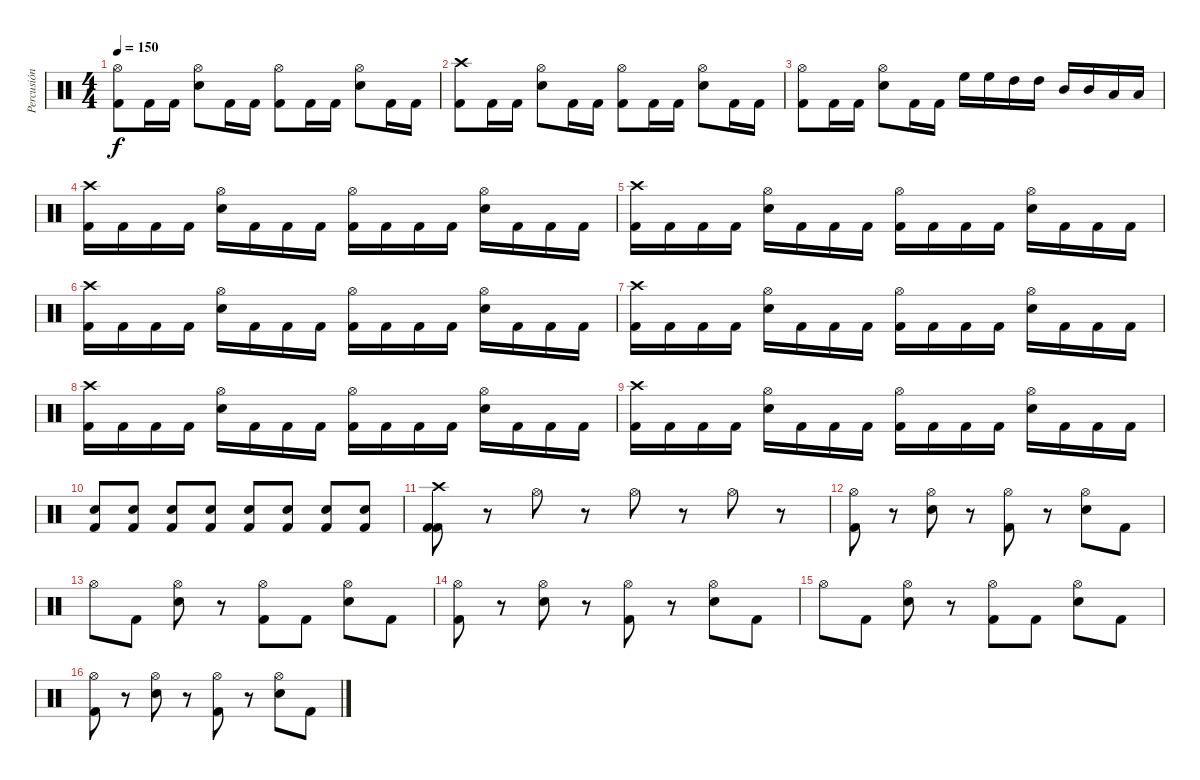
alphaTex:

\track ("Percusión" "Percusión") {instrument percussion}
\staff {score}
\articulation defaults
\ts (4 4)
\tempo 150
\clef neutral
\ks c
("Hi-Hat (open)" "Kick (hit) 2").8{dy f} "Kick (hit) 2".16 "Kick (hit) 2".16 ("Hi-Hat (open)" "Electric Snare (hit)").8 "Kick (hit) 2".16 "Kick (hit) 2".16 ("Hi-Hat (open)" "Kick (hit) 2").8 "Kick (hit) 2".16 "Kick (hit) 2".16 ("Hi-Hat (open)" "Electric Snare (hit)").8 "Kick (hit) 2".16 "Kick (hit) 2".16 |
("Crash high (hit)" "Kick (hit) 2").8 "Kick (hit) 2".16 "Kick (hit) 2".16 ("Hi-Hat (open)" "Electric Snare (hit)").8 "Kick (hit) 2".16 "Kick (hit) 2".16 ("Hi-Hat (open)" "Kick (hit) 2").8 "Kick (hit) 2".16 "Kick (hit) 2".16 ("Hi-Hat (open)" "Electric Snare (hit)").8 "Kick (hit) 2".16 "Kick (hit) 2".16 |
("Hi-Hat (open)" "Kick (hit) 2").8 "Kick (hit) 2".16 "Kick (hit) 2".16 ("Hi-Hat (open)" "Electric Snare (hit)").8 "Kick (hit) 2".16 "Kick (hit) 2".16 "High Floor Tom (hit)".16 "High Floor Tom (hit)".16 "High Tom (hit)".16 "High Tom (hit)".16 "Mid Tom (hit)".16 "Mid Tom (hit)".16 "Low Tom (hit)".16 "Low Tom (hit)".16 |
("Crash high (hit)" "Kick (hit) 2").16 "Kick (hit) 2".16 "Kick (hit) 2".16 "Kick (hit) 2".16 ("Hi-Hat (open)" "Electric Snare (hit)").16 "Kick (hit) 2".16 "Kick (hit) 2".16 "Kick (hit) 2".16 ("Hi-Hat (open)" "Kick (hit) 2").16 "Kick (hit) 2".16 "Kick (hit) 2".16 "Kick (hit) 2".16 ("Hi-Hat (open)" "Electric Snare (hit)").16 "Kick (hit) 2".16 "Kick (hit) 2".16 "Kick (hit) 2".16 |
("Crash high (hit)" "Kick (hit) 2").16 "Kick (hit) 2".16 "Kick (hit) 2".16 "Kick (hit) 2".16 ("Hi-Hat (open)" "Electric Snare (hit)").16 "Kick (hit) 2".16 "Kick (hit) 2".16 "Kick (hit) 2".16 ("Hi-Hat (open)" "Kick (hit) 2").16 "Kick (hit) 2".16 "Kick (hit) 2".16 "Kick (hit) 2".16 ("Hi-Hat (open)" "Electric Snare (hit)").16 "Kick (hit) 2".16 "Kick (hit) 2".16 "Kick (hit) 2".16 |
("Crash high (hit)" "Kick (hit) 2").16 "Kick (hit) 2".16 "Kick (hit) 2".16 "Kick (hit) 2".16 ("Hi-Hat (open)" "Electric Snare (hit)").16 "Kick (hit) 2".16 "Kick (hit) 2".16 "Kick (hit) 2".16 ("Hi-Hat (open)" "Kick (hit) 2").16 "Kick (hit) 2".16 "Kick (hit) 2".16 "Kick (hit) 2".16 ("Hi-Hat (open)" "Electric Snare (hit)").16 "Kick (hit) 2".16 "Kick (hit) 2".16 "Kick (hit) 2".16 |
("Crash high (hit)" "Kick (hit) 2").16 "Kick (hit) 2".16 "Kick (hit) 2".16 "Kick (hit) 2".16 ("Hi-Hat (open)" "Electric Snare (hit)").16 "Kick (hit) 2".16 "Kick (hit) 2".16 "Kick (hit) 2".16 ("Hi-Hat (open)" "Kick (hit) 2").16 "Kick (hit) 2".16 "Kick (hit) 2".16 "Kick (hit) 2".16 ("Hi-Hat (open)" "Electric Snare (hit)").16 "Kick (hit) 2".16 "Kick (hit) 2".16 "Kick (hit) 2".16 |
("Crash high (hit)" "Kick (hit) 2").16 "Kick (hit) 2".16 "Kick (hit) 2".16 "Kick (hit) 2".16 ("Hi-Hat (open)" "Electric Snare (hit)").16 "Kick (hit) 2".16 "Kick (hit) 2".16 "Kick (hit) 2".16 ("Hi-Hat (open)" "Kick (hit) 2").16 "Kick (hit) 2".16 "Kick (hit) 2".16 "Kick (hit) 2".16 ("Hi-Hat (open)" "Electric Snare (hit)").16 "Kick (hit) 2".16 "Kick (hit) 2".16 "Kick (hit) 2".16 |
("Crash high (hit)" "Kick (hit) 2").16 "Kick (hit) 2".16 "Kick (hit) 2".16 "Kick (hit) 2".16 ("Hi-Hat (open)" "Electric Snare (hit)").16 "Kick (hit) 2".16 "Kick (hit) 2".16 "Kick (hit) 2".16 ("Hi-Hat (open)" "Kick (hit) 2").16 "Kick (hit) 2".16 "Kick (hit) 2".16 "Kick (hit) 2".16 ("Hi-Hat (open)" "Electric Snare (hit)").16 "Kick (hit) 2".16 "Kick (hit) 2".16 "Kick (hit) 2".16 |
("Kick (hit) 2" "Electric Snare (hit)").8 ("Kick (hit) 2" "Electric Snare (hit)").8 ("Kick (hit) 2" "Electric Snare (hit)").8 ("Kick (hit) 2" "Electric Snare (hit)").8 ("Kick (hit) 2" "Electric Snare (hit)").8 ("Kick (hit) 2" "Electric Snare (hit)").8 ("Kick (hit) 2" "Electric Snare (hit)").8 ("Kick (hit) 2" "Electric Snare (hit)").8 |
("Crash high (hit)" "Kick (hit) 2" "Kick (hit) 2").8 r.8 "Hi-Hat (open)".8 r.8 "Hi-Hat (open)".8 r.8 "Hi-Hat (open)".8 r.8 |
("Hi-Hat (open)" "Kick (hit) 2").8 r.8 ("Hi-Hat (open)" "Electric Snare (hit)").8 r.8 ("Hi-Hat (open)" "Kick (hit) 2").8 r.8 ("Hi-Hat (open)" "Electric Snare (hit)").8 "Kick (hit) 2".8 |
"Hi-Hat (open)".8 "Kick (hit) 2".8 ("Hi-Hat (open)" "Electric Snare (hit)").8 r.8 ("Hi-Hat (open)" "Kick (hit) 2").8 "Kick (hit) 2".8 ("Hi-Hat (open)" "Electric Snare (hit)").8 "Kick (hit) 2".8 |
("Hi-Hat (open)" "Kick (hit) 2").8 r.8 ("Hi-Hat (open)" "Electric Snare (hit)").8 r.8 ("Hi-Hat (open)" "Kick (hit) 2").8 r.8 ("Hi-Hat (open)" "Electric Snare (hit)").8 "Kick (hit) 2".8 |
"Hi-Hat (open)".8 "Kick (hit) 2".8 ("Hi-Hat (open)" "Electric Snare (hit)").8 r.8 ("Hi-Hat (open)" "Kick (hit) 2").8 "Kick (hit) 2".8 ("Hi-Hat (open)" "Electric Snare (hit)").8 "Kick (hit) 2".8 |
("Hi-Hat (open)" "Kick (hit) 2").8 r.8 ("Hi-Hat (open)" "Electric Snare (hit)").8 r.8 ("Hi-Hat (open)" "Kick (hit) 2").8 r.8 ("Hi-Hat (open)" "Electric Snare (hit)").8 "Kick (hit) 2".8
